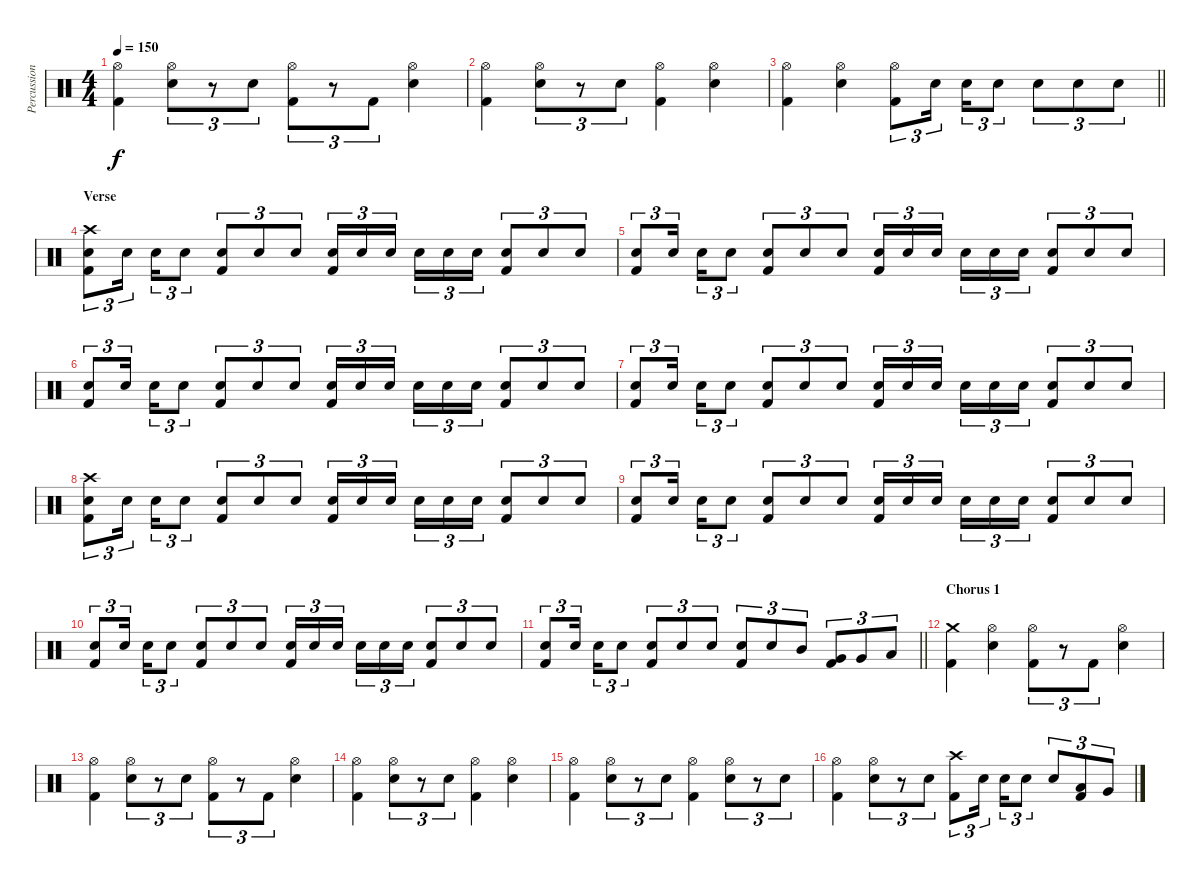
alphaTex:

\track ("Percussion" "Percussion") {instrument percussion}
\staff {score}
\articulation defaults
\ts (4 4)
\tempo 150
\clef neutral
\ks c
("Hi-Hat (open)" "Kick (hit) 2").4{dy f} ("Hi-Hat (open)" "Electric Snare (hit)").8{tu (3 2)} r.8{tu (3 2)} "Electric Snare (hit)".8{tu (3 2)} ("Hi-Hat (open)" "Kick (hit) 2").8{tu (3 2)} r.8{tu (3 2)} "Kick (hit) 2".8{tu (3 2)} ("Hi-Hat (open)" "Electric Snare (hit)").4 |
("Hi-Hat (open)" "Kick (hit) 2").4 ("Hi-Hat (open)" "Electric Snare (hit)").8{tu (3 2)} r.8{tu (3 2)} "Electric Snare (hit)".8{tu (3 2)} ("Hi-Hat (open)" "Kick (hit) 2").4 ("Hi-Hat (open)" "Electric Snare (hit)").4 |
\barLineRight lightlight
("Hi-Hat (open)" "Kick (hit) 2").4 ("Hi-Hat (open)" "Electric Snare (hit)").4 ("Hi-Hat (open)" "Kick (hit) 2").8{tu (3 2)} "Electric Snare (hit)".16{tu (3 2) beam splitsecondary} "Electric Snare (hit)".16{tu (3 2)} "Electric Snare (hit)".8{tu (3 2)} "Electric Snare (hit)".8{tu (3 2)} "Electric Snare (hit)".8{tu (3 2)} "Electric Snare (hit)".8{tu (3 2)} |
\section ("" "Verse")
("Crash high (hit)" "Electric Snare (hit)" "Kick (hit) 2").8{tu (3 2)} "Electric Snare (hit)".16{tu (3 2) beam splitsecondary} "Electric Snare (hit)".16{tu (3 2)} "Electric Snare (hit)".8{tu (3 2)} ("Electric Snare (hit)" "Kick (hit) 2").8{tu (3 2)} "Electric Snare (hit)".8{tu (3 2)} "Electric Snare (hit)".8{tu (3 2)} ("Electric Snare (hit)" "Kick (hit) 2").16{tu (3 2)} "Electric Snare (hit)".16{tu (3 2)} "Electric Snare (hit)".16{tu (3 2) beam splitsecondary} "Electric Snare (hit)".16{tu (3 2)} "Electric Snare (hit)".16{tu (3 2)} "Electric Snare (hit)".16{tu (3 2)} ("Electric Snare (hit)" "Kick (hit) 2").8{tu (3 2)} "Electric Snare (hit)".8{tu (3 2)} "Electric Snare (hit)".8{tu (3 2)} |
("Electric Snare (hit)" "Kick (hit) 2").8{tu (3 2)} "Electric Snare (hit)".16{tu (3 2) beam splitsecondary} "Electric Snare (hit)".16{tu (3 2)} "Electric Snare (hit)".8{tu (3 2)} ("Electric Snare (hit)" "Kick (hit) 2").8{tu (3 2)} "Electric Snare (hit)".8{tu (3 2)} "Electric Snare (hit)".8{tu (3 2)} ("Electric Snare (hit)" "Kick (hit) 2").16{tu (3 2)} "Electric Snare (hit)".16{tu (3 2)} "Electric Snare (hit)".16{tu (3 2) beam splitsecondary} "Electric Snare (hit)".16{tu (3 2)} "Electric Snare (hit)".16{tu (3 2)} "Electric Snare (hit)".16{tu (3 2)} ("Electric Snare (hit)" "Kick (hit) 2").8{tu (3 2)} "Electric Snare (hit)".8{tu (3 2)} "Electric Snare (hit)".8{tu (3 2)} |
("Electric Snare (hit)" "Kick (hit) 2").8{tu (3 2)} "Electric Snare (hit)".16{tu (3 2) beam splitsecondary} "Electric Snare (hit)".16{tu (3 2)} "Electric Snare (hit)".8{tu (3 2)} ("Electric Snare (hit)" "Kick (hit) 2").8{tu (3 2)} "Electric Snare (hit)".8{tu (3 2)} "Electric Snare (hit)".8{tu (3 2)} ("Electric Snare (hit)" "Kick (hit) 2").16{tu (3 2)} "Electric Snare (hit)".16{tu (3 2)} "Electric Snare (hit)".16{tu (3 2) beam splitsecondary} "Electric Snare (hit)".16{tu (3 2)} "Electric Snare (hit)".16{tu (3 2)} "Electric Snare (hit)".16{tu (3 2)} ("Electric Snare (hit)" "Kick (hit) 2").8{tu (3 2)} "Electric Snare (hit)".8{tu (3 2)} "Electric Snare (hit)".8{tu (3 2)} |
("Electric Snare (hit)" "Kick (hit) 2").8{tu (3 2)} "Electric Snare (hit)".16{tu (3 2) beam splitsecondary} "Electric Snare (hit)".16{tu (3 2)} "Electric Snare (hit)".8{tu (3 2)} ("Electric Snare (hit)" "Kick (hit) 2").8{tu (3 2)} "Electric Snare (hit)".8{tu (3 2)} "Electric Snare (hit)".8{tu (3 2)} ("Electric Snare (hit)" "Kick (hit) 2").16{tu (3 2)} "Electric Snare (hit)".16{tu (3 2)} "Electric Snare (hit)".16{tu (3 2) beam splitsecondary} "Electric Snare (hit)".16{tu (3 2)} "Electric Snare (hit)".16{tu (3 2)} "Electric Snare (hit)".16{tu (3 2)} ("Electric Snare (hit)" "Kick (hit) 2").8{tu (3 2)} "Electric Snare (hit)".8{tu (3 2)} "Electric Snare (hit)".8{tu (3 2)} |
("Crash high (hit)" "Electric Snare (hit)" "Kick (hit) 2").8{tu (3 2)} "Electric Snare (hit)".16{tu (3 2) beam splitsecondary} "Electric Snare (hit)".16{tu (3 2)} "Electric Snare (hit)".8{tu (3 2)} ("Electric Snare (hit)" "Kick (hit) 2").8{tu (3 2)} "Electric Snare (hit)".8{tu (3 2)} "Electric Snare (hit)".8{tu (3 2)} ("Electric Snare (hit)" "Kick (hit) 2").16{tu (3 2)} "Electric Snare (hit)".16{tu (3 2)} "Electric Snare (hit)".16{tu (3 2) beam splitsecondary} "Electric Snare (hit)".16{tu (3 2)} "Electric Snare (hit)".16{tu (3 2)} "Electric Snare (hit)".16{tu (3 2)} ("Electric Snare (hit)" "Kick (hit) 2").8{tu (3 2)} "Electric Snare (hit)".8{tu (3 2)} "Electric Snare (hit)".8{tu (3 2)} |
("Electric Snare (hit)" "Kick (hit) 2").8{tu (3 2)} "Electric Snare (hit)".16{tu (3 2) beam splitsecondary} "Electric Snare (hit)".16{tu (3 2)} "Electric Snare (hit)".8{tu (3 2)} ("Electric Snare (hit)" "Kick (hit) 2").8{tu (3 2)} "Electric Snare (hit)".8{tu (3 2)} "Electric Snare (hit)".8{tu (3 2)} ("Electric Snare (hit)" "Kick (hit) 2").16{tu (3 2)} "Electric Snare (hit)".16{tu (3 2)} "Electric Snare (hit)".16{tu (3 2) beam splitsecondary} "Electric Snare (hit)".16{tu (3 2)} "Electric Snare (hit)".16{tu (3 2)} "Electric Snare (hit)".16{tu (3 2)} ("Electric Snare (hit)" "Kick (hit) 2").8{tu (3 2)} "Electric Snare (hit)".8{tu (3 2)} "Electric Snare (hit)".8{tu (3 2)} |
("Electric Snare (hit)" "Kick (hit) 2").8{tu (3 2)} "Electric Snare (hit)".16{tu (3 2) beam splitsecondary} "Electric Snare (hit)".16{tu (3 2)} "Electric Snare (hit)".8{tu (3 2)} ("Electric Snare (hit)" "Kick (hit) 2").8{tu (3 2)} "Electric Snare (hit)".8{tu (3 2)} "Electric Snare (hit)".8{tu (3 2)} ("Electric Snare (hit)" "Kick (hit) 2").16{tu (3 2)} "Electric Snare (hit)".16{tu (3 2)} "Electric Snare (hit)".16{tu (3 2) beam splitsecondary} "Electric Snare (hit)".16{tu (3 2)} "Electric Snare (hit)".16{tu (3 2)} "Electric Snare (hit)".16{tu (3 2)} ("Electric Snare (hit)" "Kick (hit) 2").8{tu (3 2)} "Electric Snare (hit)".8{tu (3 2)} "Electric Snare (hit)".8{tu (3 2)} |
\barLineRight lightlight
("Electric Snare (hit)" "Kick (hit) 2").8{tu (3 2)} "Electric Snare (hit)".16{tu (3 2) beam splitsecondary} "Electric Snare (hit)".16{tu (3 2)} "Electric Snare (hit)".8{tu (3 2)} ("Electric Snare (hit)" "Kick (hit) 2").8{tu (3 2)} "Electric Snare (hit)".8{tu (3 2)} "Electric Snare (hit)".8{tu (3 2)} ("Electric Snare (hit)" "Kick (hit) 2").8{tu (3 2)} "Electric Snare (hit)".8{tu (3 2)} "Mid Tom (hit)".8{tu (3 2)} ("Very Low Tom (hit)" "Kick (hit) 2").8{tu (3 2)} "Very Low Tom (hit)".8{tu (3 2)} "Low Floor Tom (hit)".8{tu (3 2)} |
\section ("" "Chorus 1")
("Crash medium (hit)" "Kick (hit) 2").4 ("Hi-Hat (open)" "Electric Snare (hit)").4 ("Hi-Hat (open)" "Kick (hit) 2").8{tu (3 2)} r.8{tu (3 2)} "Kick (hit) 2".8{tu (3 2)} ("Hi-Hat (open)" "Electric Snare (hit)").4 |
("Hi-Hat (open)" "Kick (hit) 2").4 ("Hi-Hat (open)" "Electric Snare (hit)").8{tu (3 2)} r.8{tu (3 2)} "Electric Snare (hit)".8{tu (3 2)} ("Hi-Hat (open)" "Kick (hit) 2").8{tu (3 2)} r.8{tu (3 2)} "Kick (hit) 2".8{tu (3 2)} ("Hi-Hat (open)" "Electric Snare (hit)").4 |
("Hi-Hat (open)" "Kick (hit) 2").4 ("Hi-Hat (open)" "Electric Snare (hit)").8{tu (3 2)} r.8{tu (3 2)} "Electric Snare (hit)".8{tu (3 2)} ("Hi-Hat (open)" "Kick (hit) 2").4 ("Hi-Hat (open)" "Electric Snare (hit)").4 |
("Hi-Hat (open)" "Kick (hit) 2").4 ("Hi-Hat (open)" "Electric Snare (hit)").8{tu (3 2)} r.8{tu (3 2)} "Electric Snare (hit)".8{tu (3 2)} ("Hi-Hat (open)" "Kick (hit) 2").4 ("Hi-Hat (open)" "Electric Snare (hit)").8{tu (3 2)} r.8{tu (3 2)} "Electric Snare (hit)".8{tu (3 2)} |
("Hi-Hat (open)" "Kick (hit) 2").4 ("Hi-Hat (open)" "Electric Snare (hit)").8{tu (3 2)} r.8{tu (3 2)} "Electric Snare (hit)".8{tu (3 2)} ("Crash high (hit)" "Kick (hit) 2").8{tu (3 2)} "Electric Snare (hit)".16{tu (3 2) beam splitsecondary} "Electric Snare (hit)".16{tu (3 2)} "Electric Snare (hit)".8{tu (3 2)} "Electric Snare (hit)".8{tu (3 2)} ("Low Floor Tom (hit)" "Kick (hit) 2").8{tu (3 2)} "Very Low Tom (hit)".8{tu (3 2)}
